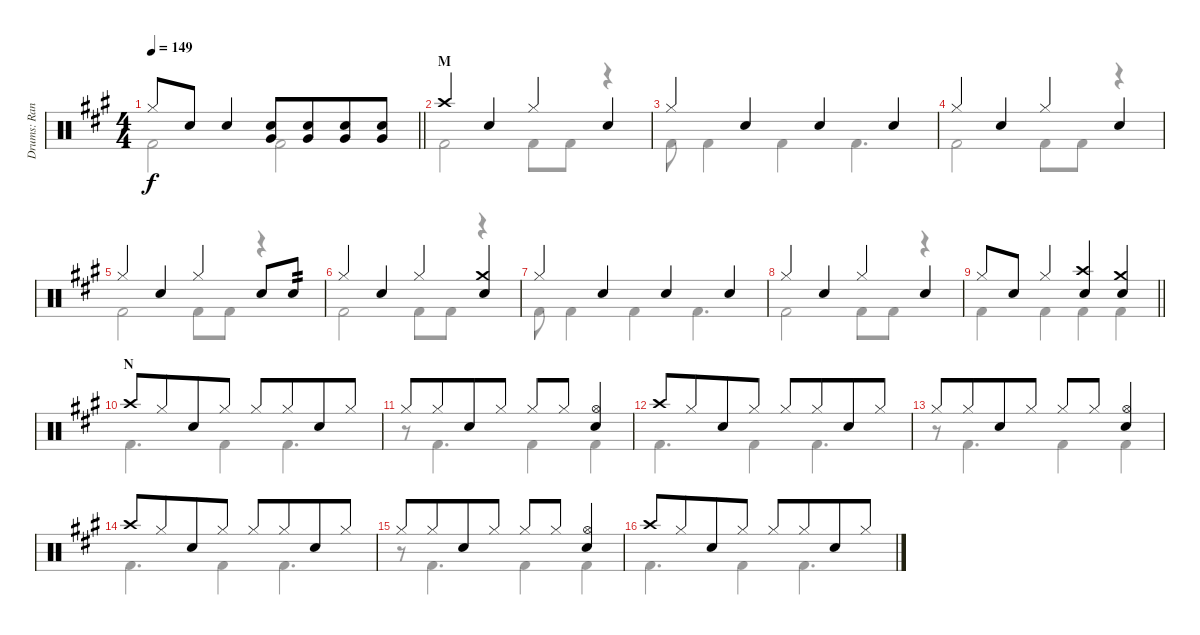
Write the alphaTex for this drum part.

\track ("Drums: Randy" "Drums: Ran") {instrument percussion}
\staff {score}
\articulation defaults
\voice
\ts (4 4)
\tempo 149
\clef neutral
\barLineRight lightlight
\ks a "Hi-Hat (closed)".8{dy f} "Snare (hit) 2".8 "Snare (hit) 2".4
("Snare (hit) 2" "Very Low Tom (hit)").8{beam merge} ("Snare (hit) 2" "Very Low Tom (hit)").8{beam merge} ("Snare (hit) 2" "Very Low Tom (hit)").8{beam merge} ("Snare (hit) 2" "Very Low Tom (hit)").8 |
\section ("" "M")
"Crash high (hit)".4 "Snare (hit) 2".4 "Hi-Hat (closed)".4 "Snare (hit) 2".4 |
"Hi-Hat (closed)".4 "Snare (hit) 2".4 "Snare (hit) 2".4 "Snare (hit) 2".4 |
"Hi-Hat (closed)".4 "Snare (hit) 2".4 "Hi-Hat (closed)".4 "Snare (hit) 2".4 |
"Hi-Hat (closed)".4 "Snare (hit) 2".4 "Hi-Hat (closed)".4 "Snare (hit) 2".8 "Snare (hit) 2".8{tp 2} |
"Hi-Hat (closed)".4 "Snare (hit) 2".4 "Hi-Hat (closed)".4 ("Crash medium (hit)" "Snare (hit) 2").4 |
"Hi-Hat (closed)".4 "Snare (hit) 2".4 "Snare (hit) 2".4 "Snare (hit) 2".4 |
"Hi-Hat (closed)".4 "Snare (hit) 2".4 "Hi-Hat (closed)".4 "Snare (hit) 2".4 |
\barLineRight lightlight "Hi-Hat (closed)".8 "Snare (hit) 2".8 "Hi-Hat (closed)".4
("Crash high (hit)" "Snare (hit) 2").4 ("Crash medium (hit)" "Snare (hit) 2").4 |
\section ("" "N")
"Crash high (hit)".8 "Hi-Hat (closed)".8{beam merge} "Snare (hit) 2".8 "Hi-Hat (closed)".8 "Hi-Hat (closed)".8 "Hi-Hat (closed)".8{beam merge} "Snare (hit) 2".8 "Hi-Hat (closed)".8 |
"Hi-Hat (closed)".8 "Hi-Hat (closed)".8{beam merge} "Snare (hit) 2".8 "Hi-Hat (closed)".8 "Hi-Hat (closed)".8 "Hi-Hat (closed)".8 ("Hi-Hat (open)" "Snare (hit) 2").4 |
"Crash high (hit)".8 "Hi-Hat (closed)".8{beam merge} "Snare (hit) 2".8 "Hi-Hat (closed)".8 "Hi-Hat (closed)".8 "Hi-Hat (closed)".8{beam merge} "Snare (hit) 2".8 "Hi-Hat (closed)".8 |
"Hi-Hat (closed)".8 "Hi-Hat (closed)".8{beam merge} "Snare (hit) 2".8 "Hi-Hat (closed)".8 "Hi-Hat (closed)".8 "Hi-Hat (closed)".8 ("Hi-Hat (open)" "Snare (hit) 2").4 |
"Crash high (hit)".8 "Hi-Hat (closed)".8{beam merge} "Snare (hit) 2".8 "Hi-Hat (closed)".8 "Hi-Hat (closed)".8 "Hi-Hat (closed)".8{beam merge} "Snare (hit) 2".8 "Hi-Hat (closed)".8 |
"Hi-Hat (closed)".8 "Hi-Hat (closed)".8{beam merge} "Snare (hit) 2".8 "Hi-Hat (closed)".8 "Hi-Hat (closed)".8 "Hi-Hat (closed)".8 ("Hi-Hat (open)" "Snare (hit) 2").4 |
"Crash high (hit)".8 "Hi-Hat (closed)".8{beam merge} "Snare (hit) 2".8 "Hi-Hat (closed)".8 "Hi-Hat (closed)".8 "Hi-Hat (closed)".8{beam merge} "Snare (hit) 2".8 "Hi-Hat (closed)".8
\voice
\clef neutral
\ottava regular
\simile none
\barLineRight lightlight
\ks a "Kick (hit) 2".2{dy f} "Kick (hit) 2".2
|
"Kick (hit) 2".2 "Kick (hit) 2".8 "Kick (hit) 2".8 r.4 |
"Kick (hit) 2".8 "Kick (hit) 2".4 "Kick (hit) 2".4 "Kick (hit) 2".4{d} |
"Kick (hit) 2".2 "Kick (hit) 2".8 "Kick (hit) 2".8 r.4 |
"Kick (hit) 2".2 "Kick (hit) 2".8 "Kick (hit) 2".8 r.4 |
"Kick (hit) 2".2 "Kick (hit) 2".8 "Kick (hit) 2".8 r.4 |
"Kick (hit) 2".8 "Kick (hit) 2".4 "Kick (hit) 2".4 "Kick (hit) 2".4{d} |
"Kick (hit) 2".2 "Kick (hit) 2".8 "Kick (hit) 2".8 r.4 |
\barLineRight lightlight "Kick (hit) 2".4 "Kick (hit) 2".4 "Kick (hit) 2".4 "Kick (hit) 2".4
|
"Kick (hit) 2".4{d} "Kick (hit) 2".4 "Kick (hit) 2".4{d} |
r.8 "Kick (hit) 2".4{d} "Kick (hit) 2".4 "Kick (hit) 2".4 |
"Kick (hit) 2".4{d} "Kick (hit) 2".4 "Kick (hit) 2".4{d} |
r.8 "Kick (hit) 2".4{d} "Kick (hit) 2".4 "Kick (hit) 2".4 |
"Kick (hit) 2".4{d} "Kick (hit) 2".4 "Kick (hit) 2".4{d} |
r.8 "Kick (hit) 2".4{d} "Kick (hit) 2".4 "Kick (hit) 2".4 |
"Kick (hit) 2".4{d} "Kick (hit) 2".4 "Kick (hit) 2".4{d}
